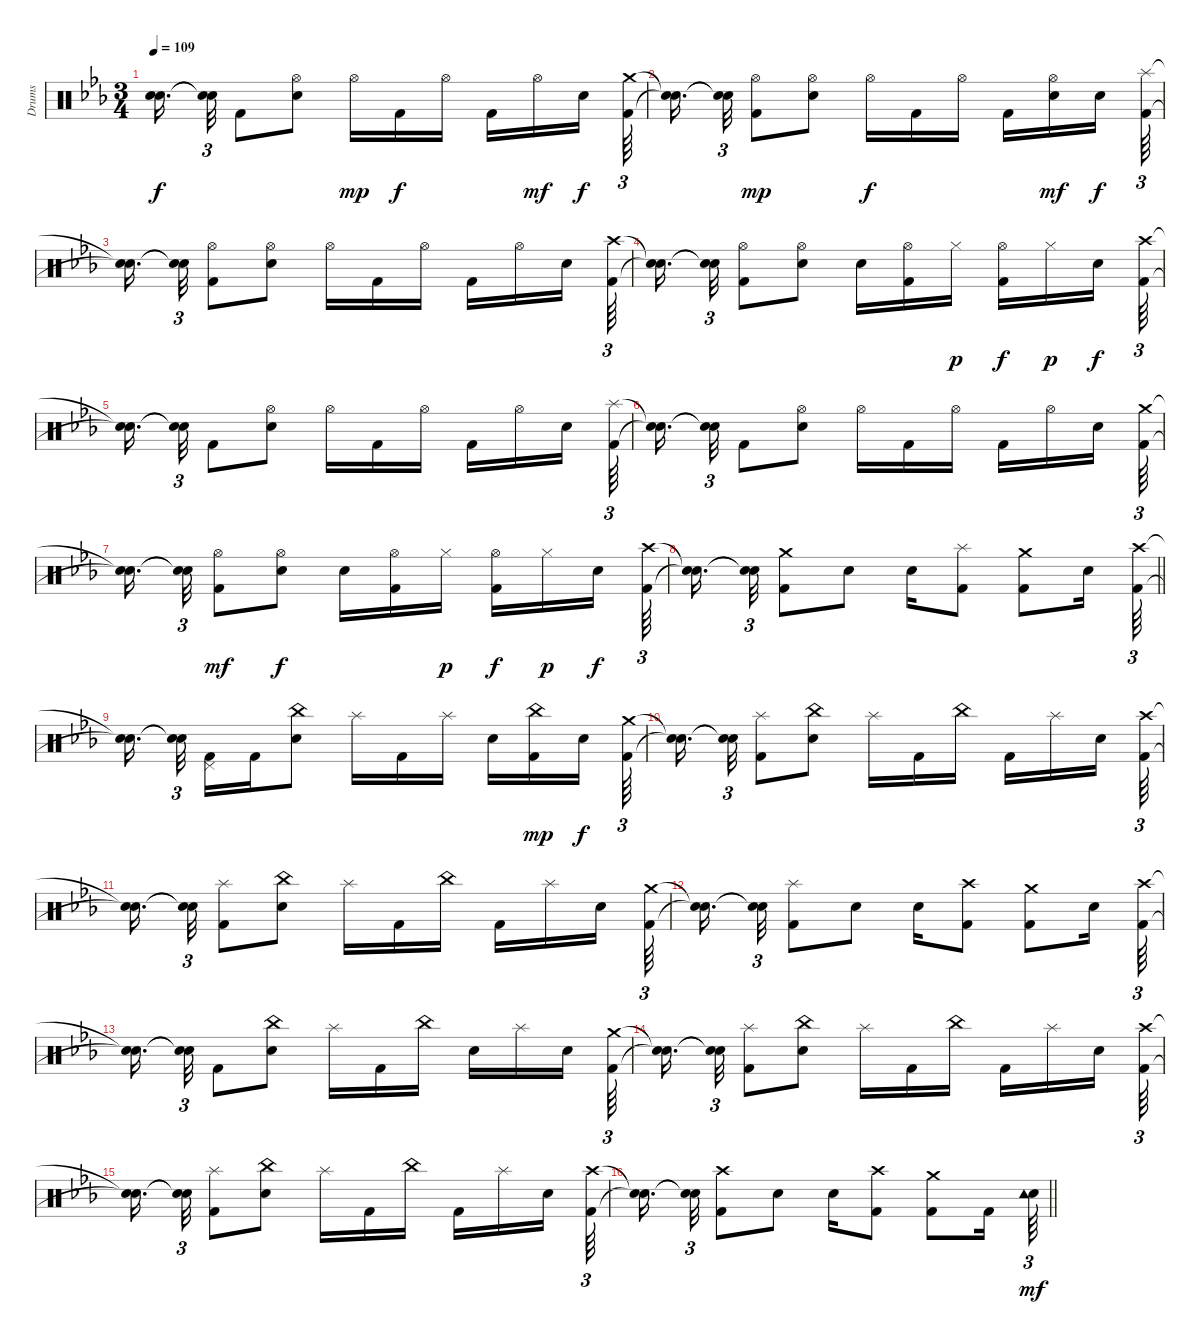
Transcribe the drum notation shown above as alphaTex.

\track ("Drums" "Drums") {instrument percussion}
\staff {score}
\articulation defaults
\ts (3 4)
\tempo 109
\clef neutral
\ks cminor
("Snare (hit)"{t} "Snare (hit)"{t}).16{d dy f beam splitsecondary} ("Snare (hit)"{t} "Snare (hit)"{t}).32{tu (3 2)} "Kick (hit) 2".8 ("Electric Snare (hit)" "Hi-Hat (open)").8 "Hi-Hat (open)".16{dy mp} "Kick (hit) 2".16{dy f} "Hi-Hat (open)".16 "Kick (hit) 2".16 "Hi-Hat (open)".16{dy mf} "Electric Snare (hit)".16{dy f beam splitsecondary} ("Kick (hit) 2" "Crash medium (hit)").64{tu (3 2)} |
("Snare (hit)"{t} "Snare (hit)"{t}).16{d beam splitsecondary} ("Snare (hit)"{t} "Snare (hit)"{t}).32{tu (3 2)} ("Kick (hit) 2" "Hi-Hat (open)").8{dy mp} ("Electric Snare (hit)" "Hi-Hat (open)").8 "Hi-Hat (open)".16{dy f} "Kick (hit) 2".16 "Hi-Hat (open)".16 "Kick (hit) 2".16 ("Electric Snare (hit)" "Hi-Hat (open)").16{dy mf} "Electric Snare (hit)".16{dy f beam splitsecondary} ("Kick (hit) 2" "Splash (hit)").64{tu (3 2)} |
("Snare (hit)"{t} "Snare (hit)"{t}).16{d beam splitsecondary} ("Snare (hit)"{t} "Snare (hit)"{t}).32{tu (3 2)} ("Kick (hit) 2" "Hi-Hat (open)").8 ("Electric Snare (hit)" "Hi-Hat (open)").8 "Hi-Hat (open)".16 "Kick (hit) 2".16 "Hi-Hat (open)".16 "Kick (hit) 2".16 "Hi-Hat (open)".16 "Electric Snare (hit)".16{beam splitsecondary} ("Kick (hit) 2" "Crash high (hit)").64{tu (3 2)} |
("Snare (hit)"{t} "Snare (hit)"{t}).16{d beam splitsecondary} ("Snare (hit)"{t} "Snare (hit)"{t}).32{tu (3 2)} ("Kick (hit) 2" "Hi-Hat (open)").8 ("Electric Snare (hit)" "Hi-Hat (open)").8 "Electric Snare (hit)".16 ("Kick (hit) 2" "Hi-Hat (open)").16 "Hi-Hat (closed)".16{dy p} ("Kick (hit) 2" "Hi-Hat (open)").16{dy f} "Hi-Hat (closed)".16{dy p} "Electric Snare (hit)".16{dy f beam splitsecondary} ("Crash high (hit)" "Kick (hit) 2").64{tu (3 2)} |
("Snare (hit)"{t} "Snare (hit)"{t}).16{d beam splitsecondary} ("Snare (hit)"{t} "Snare (hit)"{t}).32{tu (3 2)} "Kick (hit) 2".8 ("Electric Snare (hit)" "Hi-Hat (open)").8 "Hi-Hat (open)".16 "Kick (hit) 2".16 "Hi-Hat (open)".16 "Kick (hit) 2".16 "Hi-Hat (open)".16 "Electric Snare (hit)".16{beam splitsecondary} ("Kick (hit) 2" "Splash (hit)").64{tu (3 2)} |
("Snare (hit)"{t} "Snare (hit)"{t}).16{d beam splitsecondary} ("Snare (hit)"{t} "Snare (hit)"{t}).32{tu (3 2)} "Kick (hit) 2".8 ("Electric Snare (hit)" "Hi-Hat (open)").8 "Hi-Hat (open)".16 "Kick (hit) 2".16 "Hi-Hat (open)".16 "Kick (hit) 2".16 "Hi-Hat (open)".16 "Electric Snare (hit)".16{beam splitsecondary} ("Kick (hit) 2" "Crash medium (hit)").64{tu (3 2)} |
("Snare (hit)"{t} "Snare (hit)"{t}).16{d beam splitsecondary} ("Snare (hit)"{t} "Snare (hit)"{t}).32{tu (3 2)} ("Kick (hit) 2" "Hi-Hat (open)").8{dy mf} ("Electric Snare (hit)" "Hi-Hat (open)").8{dy f} "Electric Snare (hit)".16 ("Kick (hit) 2" "Hi-Hat (open)").16 "Hi-Hat (closed)".16{dy p} ("Kick (hit) 2" "Hi-Hat (open)").16{dy f} "Hi-Hat (closed)".16{dy p} "Electric Snare (hit)".16{dy f beam splitsecondary} ("Kick (hit) 2" "Crash high (hit)").64{tu (3 2)} |
\barLineRight lightlight
("Snare (hit)"{t} "Snare (hit)"{t}).16{d beam splitsecondary} ("Snare (hit)"{t} "Snare (hit)"{t}).32{tu (3 2)} ("Kick (hit) 2" "Crash medium (hit)").8 "Electric Snare (hit)".8 "Electric Snare (hit)".16 ("Kick (hit) 2" "Splash (hit)").8 ("Kick (hit) 2" "Crash medium (hit)").8 "Electric Snare (hit)".16 ("Kick (hit) 2" "Crash high (hit)").64{tu (3 2)} |
("Snare (hit)"{t} "Snare (hit)"{t}).16{d beam splitsecondary} ("Snare (hit)"{t} "Snare (hit)"{t}).32{tu (3 2) beam splitsecondary} ("Kick (hit) 2" "Pedal Hi-Hat (hit)").16 "Kick (hit) 2".16 ("Electric Snare (hit)" "China (hit)").8 "Splash (hit)".16 "Kick (hit) 2".16 "Splash (hit)".16 "Electric Snare (hit)".16 ("Kick (hit) 2" "China (hit)").16{dy mp} "Electric Snare (hit)".16{dy f beam splitsecondary} ("Kick (hit) 2" "Crash medium (hit)").64{tu (3 2)} |
("Snare (hit)"{t} "Snare (hit)"{t}).16{d beam splitsecondary} ("Snare (hit)"{t} "Snare (hit)"{t}).32{tu (3 2)} ("Kick (hit) 2" "Splash (hit)").8 ("Electric Snare (hit)" "China (hit)").8 "Splash (hit)".16 "Kick (hit) 2".16 "China (hit)".16 "Kick (hit) 2".16 "Splash (hit)".16 "Electric Snare (hit)".16{beam splitsecondary} ("Kick (hit) 2" "Crash high (hit)").64{tu (3 2)} |
("Snare (hit)"{t} "Snare (hit)"{t}).16{d beam splitsecondary} ("Snare (hit)"{t} "Snare (hit)"{t}).32{tu (3 2)} ("Kick (hit) 2" "Splash (hit)").8 ("Electric Snare (hit)" "China (hit)").8 "Splash (hit)".16 "Kick (hit) 2".16 "China (hit)".16 "Kick (hit) 2".16 "Splash (hit)".16 "Electric Snare (hit)".16{beam splitsecondary} ("Kick (hit) 2" "Crash medium (hit)").64{tu (3 2)} |
("Snare (hit)"{t} "Snare (hit)"{t}).16{d beam splitsecondary} ("Snare (hit)"{t} "Snare (hit)"{t}).32{tu (3 2)} ("Kick (hit) 2" "Splash (hit)").8 "Electric Snare (hit)".8 "Electric Snare (hit)".16 ("Kick (hit) 2" "Crash high (hit)").8 ("Kick (hit) 2" "Crash medium (hit)").8 "Electric Snare (hit)".16 ("Crash high (hit)" "Kick (hit) 2").64{tu (3 2)} |
("Snare (hit)"{t} "Snare (hit)"{t}).16{d beam splitsecondary} ("Snare (hit)"{t} "Snare (hit)"{t}).32{tu (3 2)} "Kick (hit) 2".8 ("Electric Snare (hit)" "China (hit)").8 "Splash (hit)".16 "Kick (hit) 2".16 "China (hit)".16 "Electric Snare (hit)".16 "Splash (hit)".16 "Electric Snare (hit)".16{beam splitsecondary} ("Crash medium (hit)" "Kick (hit) 2").64{tu (3 2)} |
("Snare (hit)"{t} "Snare (hit)"{t}).16{d beam splitsecondary} ("Snare (hit)"{t} "Snare (hit)"{t}).32{tu (3 2)} ("Kick (hit) 2" "Splash (hit)").8 ("Electric Snare (hit)" "China (hit)").8 "Splash (hit)".16 "Kick (hit) 2".16 "China (hit)".16 "Kick (hit) 2".16 "Splash (hit)".16 "Electric Snare (hit)".16{beam splitsecondary} ("Kick (hit) 2" "Crash high (hit)").64{tu (3 2)} |
("Snare (hit)"{t} "Snare (hit)"{t}).16{d beam splitsecondary} ("Snare (hit)"{t} "Snare (hit)"{t}).32{tu (3 2)} ("Kick (hit) 2" "Splash (hit)").8 ("Electric Snare (hit)" "China (hit)").8 "Splash (hit)".16 "Kick (hit) 2".16 "China (hit)".16 "Kick (hit) 2".16 "Splash (hit)".16 "Electric Snare (hit)".16{beam splitsecondary} ("Kick (hit) 2" "Crash high (hit)").64{tu (3 2)} |
\barLineRight lightlight
("Snare (hit)"{t} "Snare (hit)"{t}).16{d beam splitsecondary} ("Snare (hit)"{t} "Snare (hit)"{t}).32{tu (3 2)} ("Kick (hit) 2" "Crash high (hit)").8 "Electric Snare (hit)".8 "Electric Snare (hit)".16 ("Kick (hit) 2" "Crash high (hit)").8 ("Kick (hit) 2" "Crash medium (hit)").8 "Kick (hit) 2".16 ("Electric Snare (hit)" "Tambourine (hit)").64{tu (3 2) dy mf}
